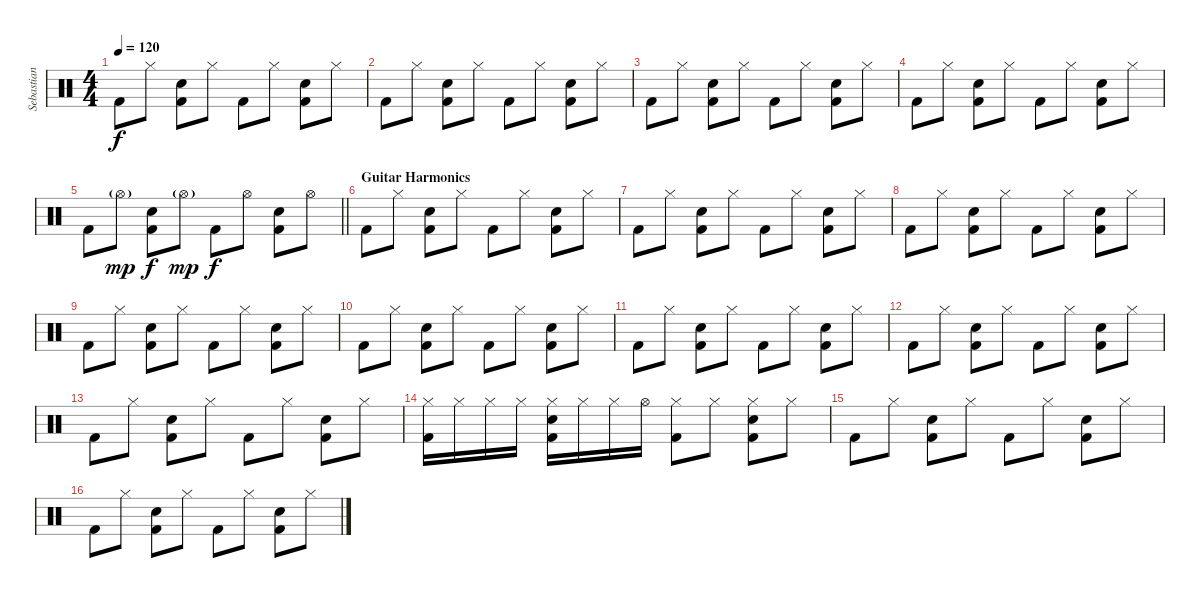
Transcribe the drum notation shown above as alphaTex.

\track ("Sebastian (Drums)" "Sebastian ") {instrument percussion}
\staff {score}
\articulation defaults
\ts (4 4)
\tempo 120
\clef neutral
\ks c "Kick (hit) 2".8{dy f} "Hi-Hat (closed)".8
("Electric Snare (hit)" "Kick (hit) 2").8 "Hi-Hat (closed)".8 "Kick (hit) 2".8 "Hi-Hat (closed)".8 ("Electric Snare (hit)" "Kick (hit) 2").8 "Hi-Hat (closed)".8 |
"Kick (hit) 2".8 "Hi-Hat (closed)".8 ("Electric Snare (hit)" "Kick (hit) 2").8 "Hi-Hat (closed)".8 "Kick (hit) 2".8 "Hi-Hat (closed)".8 ("Electric Snare (hit)" "Kick (hit) 2").8 "Hi-Hat (closed)".8 |
"Kick (hit) 2".8 "Hi-Hat (closed)".8 ("Electric Snare (hit)" "Kick (hit) 2").8 "Hi-Hat (closed)".8 "Kick (hit) 2".8 "Hi-Hat (closed)".8 ("Electric Snare (hit)" "Kick (hit) 2").8 "Hi-Hat (closed)".8 |
"Kick (hit) 2".8 "Hi-Hat (closed)".8 ("Electric Snare (hit)" "Kick (hit) 2").8 "Hi-Hat (closed)".8 "Kick (hit) 2".8 "Hi-Hat (closed)".8 ("Electric Snare (hit)" "Kick (hit) 2").8 "Hi-Hat (closed)".8 |
\barLineRight lightlight "Kick (hit) 2".8 "Hi-Hat (open)"{g}.8{dy mp}
("Electric Snare (hit)" "Kick (hit) 2").8{dy f} "Hi-Hat (open)"{g}.8{dy mp} "Kick (hit) 2".8{dy f} "Hi-Hat (open)".8 ("Electric Snare (hit)" "Kick (hit) 2").8 "Hi-Hat (open)".8 |
\section ("" "Guitar Harmonics")
"Kick (hit) 2".8 "Hi-Hat (closed)".8 ("Electric Snare (hit)" "Kick (hit) 2").8 "Hi-Hat (closed)".8 "Kick (hit) 2".8 "Hi-Hat (closed)".8 ("Electric Snare (hit)" "Kick (hit) 2").8 "Hi-Hat (closed)".8 |
"Kick (hit) 2".8 "Hi-Hat (closed)".8 ("Electric Snare (hit)" "Kick (hit) 2").8 "Hi-Hat (closed)".8 "Kick (hit) 2".8 "Hi-Hat (closed)".8 ("Electric Snare (hit)" "Kick (hit) 2").8 "Hi-Hat (closed)".8 |
"Kick (hit) 2".8 "Hi-Hat (closed)".8 ("Electric Snare (hit)" "Kick (hit) 2").8 "Hi-Hat (closed)".8 "Kick (hit) 2".8 "Hi-Hat (closed)".8 ("Electric Snare (hit)" "Kick (hit) 2").8 "Hi-Hat (closed)".8 |
"Kick (hit) 2".8 "Hi-Hat (closed)".8 ("Electric Snare (hit)" "Kick (hit) 2").8 "Hi-Hat (closed)".8 "Kick (hit) 2".8 "Hi-Hat (closed)".8 ("Electric Snare (hit)" "Kick (hit) 2").8 "Hi-Hat (closed)".8 |
"Kick (hit) 2".8 "Hi-Hat (closed)".8 ("Electric Snare (hit)" "Kick (hit) 2").8 "Hi-Hat (closed)".8 "Kick (hit) 2".8 "Hi-Hat (closed)".8 ("Electric Snare (hit)" "Kick (hit) 2").8 "Hi-Hat (closed)".8 |
"Kick (hit) 2".8 "Hi-Hat (closed)".8 ("Electric Snare (hit)" "Kick (hit) 2").8 "Hi-Hat (closed)".8 "Kick (hit) 2".8 "Hi-Hat (closed)".8 ("Electric Snare (hit)" "Kick (hit) 2").8 "Hi-Hat (closed)".8 |
"Kick (hit) 2".8 "Hi-Hat (closed)".8 ("Electric Snare (hit)" "Kick (hit) 2").8 "Hi-Hat (closed)".8 "Kick (hit) 2".8 "Hi-Hat (closed)".8 ("Electric Snare (hit)" "Kick (hit) 2").8 "Hi-Hat (closed)".8 |
"Kick (hit) 2".8 "Hi-Hat (closed)".8 ("Electric Snare (hit)" "Kick (hit) 2").8 "Hi-Hat (closed)".8 "Kick (hit) 2".8 "Hi-Hat (closed)".8 ("Electric Snare (hit)" "Kick (hit) 2").8 "Hi-Hat (closed)".8 |
("Hi-Hat (closed)" "Kick (hit) 2").16 "Hi-Hat (closed)".16 "Hi-Hat (closed)".16 "Hi-Hat (closed)".16 ("Hi-Hat (closed)" "Electric Snare (hit)" "Kick (hit) 2").16 "Hi-Hat (closed)".16 "Hi-Hat (closed)".16 "Hi-Hat (open)".16 ("Hi-Hat (closed)" "Kick (hit) 2").8 "Hi-Hat (closed)".8 ("Hi-Hat (closed)" "Electric Snare (hit)" "Kick (hit) 2").8 "Hi-Hat (closed)".8 |
"Kick (hit) 2".8 "Hi-Hat (closed)".8 ("Electric Snare (hit)" "Kick (hit) 2").8 "Hi-Hat (closed)".8 "Kick (hit) 2".8 "Hi-Hat (closed)".8 ("Electric Snare (hit)" "Kick (hit) 2").8 "Hi-Hat (closed)".8 |
"Kick (hit) 2".8 "Hi-Hat (closed)".8 ("Electric Snare (hit)" "Kick (hit) 2").8 "Hi-Hat (closed)".8 "Kick (hit) 2".8 "Hi-Hat (closed)".8 ("Electric Snare (hit)" "Kick (hit) 2").8 "Hi-Hat (closed)".8
